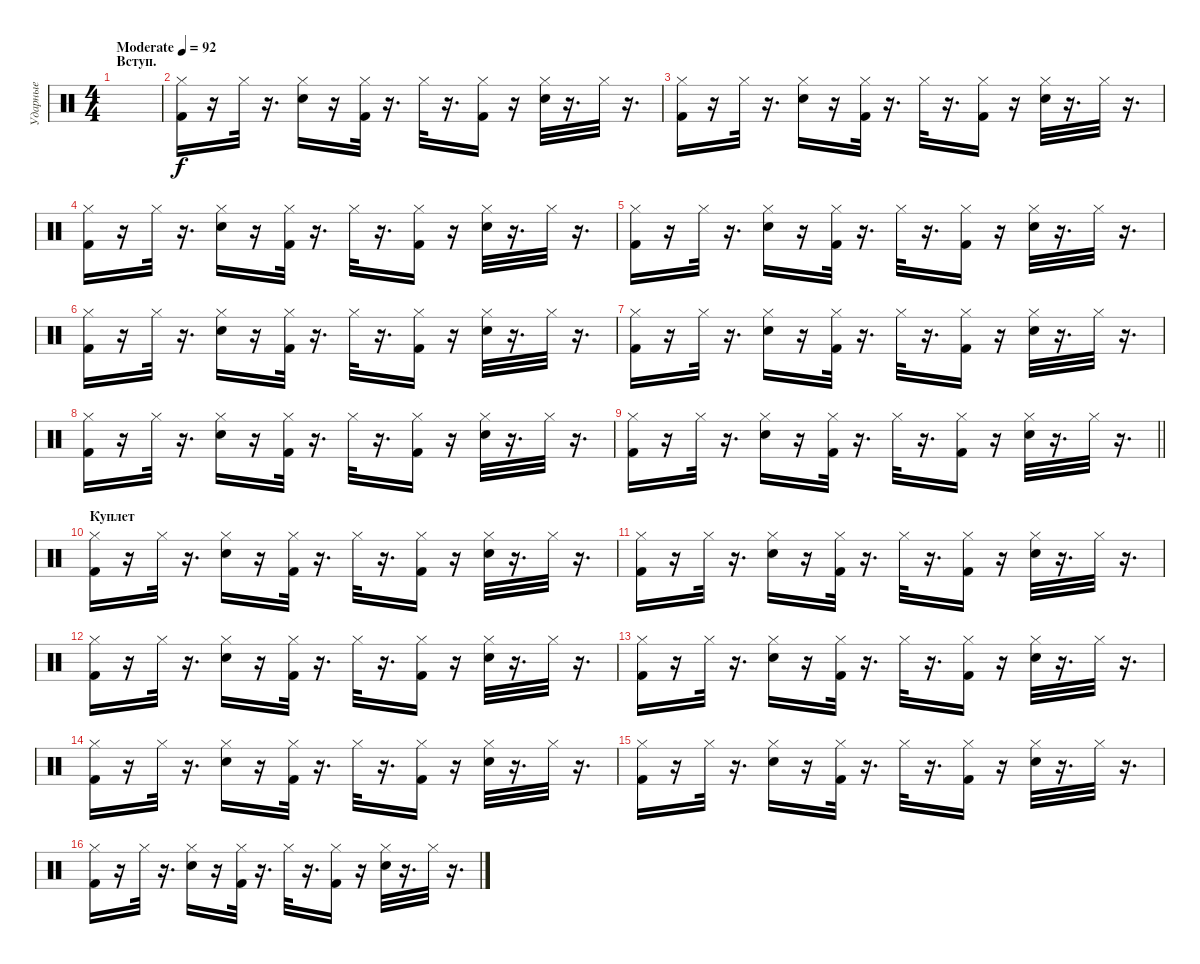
\track ("Ударные" "Ударные") {instrument percussion}
\staff {score}
\articulation defaults
\ts (4 4)
\section ("" "Вступ.")
\tempo (92 "Moderate")
\clef neutral
\ks c
|
("Kick (hit) 2" "Hi-Hat (closed)").16 r.16 "Hi-Hat (closed)".32 r.16{d} ("Electric Snare (hit)" "Hi-Hat (closed)").16 r.16 ("Kick (hit) 2" "Hi-Hat (closed)").32 r.16{d} "Hi-Hat (closed)".32 r.16{d} ("Kick (hit) 2" "Hi-Hat (closed)").16 r.16 ("Electric Snare (hit)" "Hi-Hat (closed)").32 r.16{d} "Hi-Hat (closed)".32 r.16{d} |
("Kick (hit) 2" "Hi-Hat (closed)").16 r.16 "Hi-Hat (closed)".32 r.16{d} ("Electric Snare (hit)" "Hi-Hat (closed)").16 r.16 ("Kick (hit) 2" "Hi-Hat (closed)").32 r.16{d} "Hi-Hat (closed)".32 r.16{d} ("Kick (hit) 2" "Hi-Hat (closed)").16 r.16 ("Electric Snare (hit)" "Hi-Hat (closed)").32 r.16{d} "Hi-Hat (closed)".32 r.16{d} |
("Kick (hit) 2" "Hi-Hat (closed)").16 r.16 "Hi-Hat (closed)".32 r.16{d} ("Electric Snare (hit)" "Hi-Hat (closed)").16 r.16 ("Kick (hit) 2" "Hi-Hat (closed)").32 r.16{d} "Hi-Hat (closed)".32 r.16{d} ("Kick (hit) 2" "Hi-Hat (closed)").16 r.16 ("Electric Snare (hit)" "Hi-Hat (closed)").32 r.16{d} "Hi-Hat (closed)".32 r.16{d} |
("Kick (hit) 2" "Hi-Hat (closed)").16 r.16 "Hi-Hat (closed)".32 r.16{d} ("Electric Snare (hit)" "Hi-Hat (closed)").16 r.16 ("Kick (hit) 2" "Hi-Hat (closed)").32 r.16{d} "Hi-Hat (closed)".32 r.16{d} ("Kick (hit) 2" "Hi-Hat (closed)").16 r.16 ("Electric Snare (hit)" "Hi-Hat (closed)").32 r.16{d} "Hi-Hat (closed)".32 r.16{d} |
("Kick (hit) 2" "Hi-Hat (closed)").16 r.16 "Hi-Hat (closed)".32 r.16{d} ("Electric Snare (hit)" "Hi-Hat (closed)").16 r.16 ("Kick (hit) 2" "Hi-Hat (closed)").32 r.16{d} "Hi-Hat (closed)".32 r.16{d} ("Kick (hit) 2" "Hi-Hat (closed)").16 r.16 ("Electric Snare (hit)" "Hi-Hat (closed)").32 r.16{d} "Hi-Hat (closed)".32 r.16{d} |
("Kick (hit) 2" "Hi-Hat (closed)").16 r.16 "Hi-Hat (closed)".32 r.16{d} ("Electric Snare (hit)" "Hi-Hat (closed)").16 r.16 ("Kick (hit) 2" "Hi-Hat (closed)").32 r.16{d} "Hi-Hat (closed)".32 r.16{d} ("Kick (hit) 2" "Hi-Hat (closed)").16 r.16 ("Electric Snare (hit)" "Hi-Hat (closed)").32 r.16{d} "Hi-Hat (closed)".32 r.16{d} |
("Kick (hit) 2" "Hi-Hat (closed)").16 r.16 "Hi-Hat (closed)".32 r.16{d} ("Electric Snare (hit)" "Hi-Hat (closed)").16 r.16 ("Kick (hit) 2" "Hi-Hat (closed)").32 r.16{d} "Hi-Hat (closed)".32 r.16{d} ("Kick (hit) 2" "Hi-Hat (closed)").16 r.16 ("Electric Snare (hit)" "Hi-Hat (closed)").32 r.16{d} "Hi-Hat (closed)".32 r.16{d} |
\barLineRight lightlight
("Kick (hit) 2" "Hi-Hat (closed)").16 r.16 "Hi-Hat (closed)".32 r.16{d} ("Electric Snare (hit)" "Hi-Hat (closed)").16 r.16 ("Kick (hit) 2" "Hi-Hat (closed)").32 r.16{d} "Hi-Hat (closed)".32 r.16{d} ("Kick (hit) 2" "Hi-Hat (closed)").16 r.16 ("Electric Snare (hit)" "Hi-Hat (closed)").32 r.16{d} "Hi-Hat (closed)".32 r.16{d} |
\section ("" "Куплет")
("Kick (hit) 2" "Hi-Hat (closed)").16 r.16 "Hi-Hat (closed)".32 r.16{d} ("Electric Snare (hit)" "Hi-Hat (closed)").16 r.16 ("Kick (hit) 2" "Hi-Hat (closed)").32 r.16{d} "Hi-Hat (closed)".32 r.16{d} ("Kick (hit) 2" "Hi-Hat (closed)").16 r.16 ("Electric Snare (hit)" "Hi-Hat (closed)").32 r.16{d} "Hi-Hat (closed)".32 r.16{d} |
("Kick (hit) 2" "Hi-Hat (closed)").16 r.16 "Hi-Hat (closed)".32 r.16{d} ("Electric Snare (hit)" "Hi-Hat (closed)").16 r.16 ("Kick (hit) 2" "Hi-Hat (closed)").32 r.16{d} "Hi-Hat (closed)".32 r.16{d} ("Kick (hit) 2" "Hi-Hat (closed)").16 r.16 ("Electric Snare (hit)" "Hi-Hat (closed)").32 r.16{d} "Hi-Hat (closed)".32 r.16{d} |
("Kick (hit) 2" "Hi-Hat (closed)").16 r.16 "Hi-Hat (closed)".32 r.16{d} ("Electric Snare (hit)" "Hi-Hat (closed)").16 r.16 ("Kick (hit) 2" "Hi-Hat (closed)").32 r.16{d} "Hi-Hat (closed)".32 r.16{d} ("Kick (hit) 2" "Hi-Hat (closed)").16 r.16 ("Electric Snare (hit)" "Hi-Hat (closed)").32 r.16{d} "Hi-Hat (closed)".32 r.16{d} |
("Kick (hit) 2" "Hi-Hat (closed)").16 r.16 "Hi-Hat (closed)".32 r.16{d} ("Electric Snare (hit)" "Hi-Hat (closed)").16 r.16 ("Kick (hit) 2" "Hi-Hat (closed)").32 r.16{d} "Hi-Hat (closed)".32 r.16{d} ("Kick (hit) 2" "Hi-Hat (closed)").16 r.16 ("Electric Snare (hit)" "Hi-Hat (closed)").32 r.16{d} "Hi-Hat (closed)".32 r.16{d} |
("Kick (hit) 2" "Hi-Hat (closed)").16 r.16 "Hi-Hat (closed)".32 r.16{d} ("Electric Snare (hit)" "Hi-Hat (closed)").16 r.16 ("Kick (hit) 2" "Hi-Hat (closed)").32 r.16{d} "Hi-Hat (closed)".32 r.16{d} ("Kick (hit) 2" "Hi-Hat (closed)").16 r.16 ("Electric Snare (hit)" "Hi-Hat (closed)").32 r.16{d} "Hi-Hat (closed)".32 r.16{d} |
("Kick (hit) 2" "Hi-Hat (closed)").16 r.16 "Hi-Hat (closed)".32 r.16{d} ("Electric Snare (hit)" "Hi-Hat (closed)").16 r.16 ("Kick (hit) 2" "Hi-Hat (closed)").32 r.16{d} "Hi-Hat (closed)".32 r.16{d} ("Kick (hit) 2" "Hi-Hat (closed)").16 r.16 ("Electric Snare (hit)" "Hi-Hat (closed)").32 r.16{d} "Hi-Hat (closed)".32 r.16{d} |
("Kick (hit) 2" "Hi-Hat (closed)").16 r.16 "Hi-Hat (closed)".32 r.16{d} ("Electric Snare (hit)" "Hi-Hat (closed)").16 r.16 ("Kick (hit) 2" "Hi-Hat (closed)").32 r.16{d} "Hi-Hat (closed)".32 r.16{d} ("Kick (hit) 2" "Hi-Hat (closed)").16 r.16 ("Electric Snare (hit)" "Hi-Hat (closed)").32 r.16{d} "Hi-Hat (closed)".32 r.16{d}
